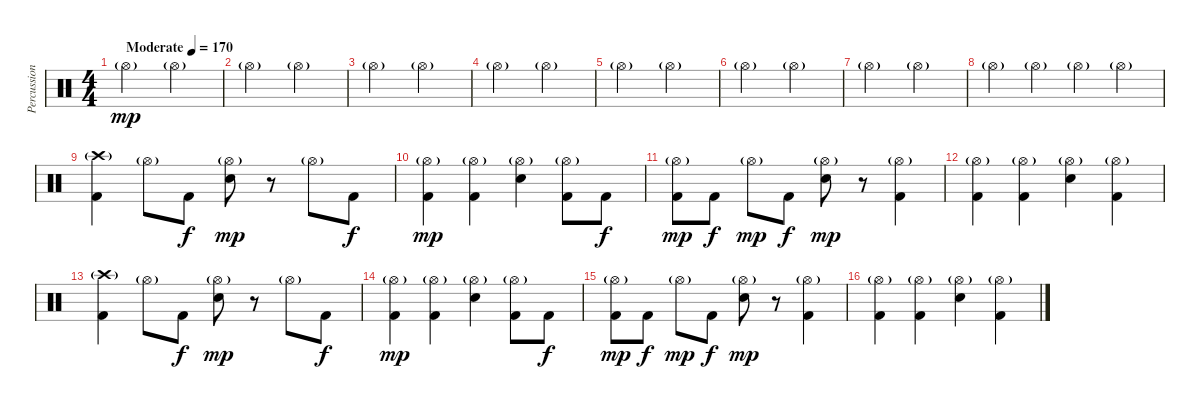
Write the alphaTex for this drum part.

\track ("Percussion" "Percussion") {instrument percussion}
\staff {score}
\articulation defaults
\ts (4 4)
\tempo (170 "Moderate")
\clef neutral
\ks c "Hi-Hat (open)"{g}.2{dy mp} "Hi-Hat (open)"{g}.2
|
"Hi-Hat (open)"{g}.2 "Hi-Hat (open)"{g}.2 |
"Hi-Hat (open)"{g}.2 "Hi-Hat (open)"{g}.2 |
"Hi-Hat (open)"{g}.2 "Hi-Hat (open)"{g}.2 |
"Hi-Hat (open)"{g}.2 "Hi-Hat (open)"{g}.2 |
"Hi-Hat (open)"{g}.2 "Hi-Hat (open)"{g}.2 |
"Hi-Hat (open)"{g}.2 "Hi-Hat (open)"{g}.2 |
"Hi-Hat (open)"{g}.4 "Hi-Hat (open)"{g}.4 "Hi-Hat (open)"{g}.4 "Hi-Hat (open)"{g}.4 |
("Crash high (hit)"{g} "Kick (hit) 2").4 "Hi-Hat (open)"{g}.8 "Kick (hit) 2".8{dy f} ("Hi-Hat (open)"{g} "Electric Snare (hit)").8{dy mp} r.8 "Hi-Hat (open)"{g}.8 "Kick (hit) 2".8{dy f} |
("Hi-Hat (open)"{g} "Kick (hit) 2").4{dy mp} ("Hi-Hat (open)"{g} "Kick (hit) 2").4 ("Hi-Hat (open)"{g} "Electric Snare (hit)").4 ("Hi-Hat (open)"{g} "Kick (hit) 2").8 "Kick (hit) 2".8{dy f} |
("Hi-Hat (open)"{g} "Kick (hit) 2").8{dy mp} "Kick (hit) 2".8{dy f} "Hi-Hat (open)"{g}.8{dy mp} "Kick (hit) 2".8{dy f} ("Hi-Hat (open)"{g} "Electric Snare (hit)").8{dy mp} r.8 ("Hi-Hat (open)"{g} "Kick (hit) 2").4 |
("Hi-Hat (open)"{g} "Kick (hit) 2").4 ("Hi-Hat (open)"{g} "Kick (hit) 2").4 ("Hi-Hat (open)"{g} "Electric Snare (hit)").4 ("Hi-Hat (open)"{g} "Kick (hit) 2").4 |
("Crash high (hit)"{g} "Kick (hit) 2").4 "Hi-Hat (open)"{g}.8 "Kick (hit) 2".8{dy f} ("Hi-Hat (open)"{g} "Electric Snare (hit)").8{dy mp} r.8 "Hi-Hat (open)"{g}.8 "Kick (hit) 2".8{dy f} |
("Hi-Hat (open)"{g} "Kick (hit) 2").4{dy mp} ("Hi-Hat (open)"{g} "Kick (hit) 2").4 ("Hi-Hat (open)"{g} "Electric Snare (hit)").4 ("Hi-Hat (open)"{g} "Kick (hit) 2").8 "Kick (hit) 2".8{dy f} |
("Hi-Hat (open)"{g} "Kick (hit) 2").8{dy mp} "Kick (hit) 2".8{dy f} "Hi-Hat (open)"{g}.8{dy mp} "Kick (hit) 2".8{dy f} ("Hi-Hat (open)"{g} "Electric Snare (hit)").8{dy mp} r.8 ("Hi-Hat (open)"{g} "Kick (hit) 2").4 |
("Hi-Hat (open)"{g} "Kick (hit) 2").4 ("Hi-Hat (open)"{g} "Kick (hit) 2").4 ("Hi-Hat (open)"{g} "Electric Snare (hit)").4 ("Hi-Hat (open)"{g} "Kick (hit) 2").4
